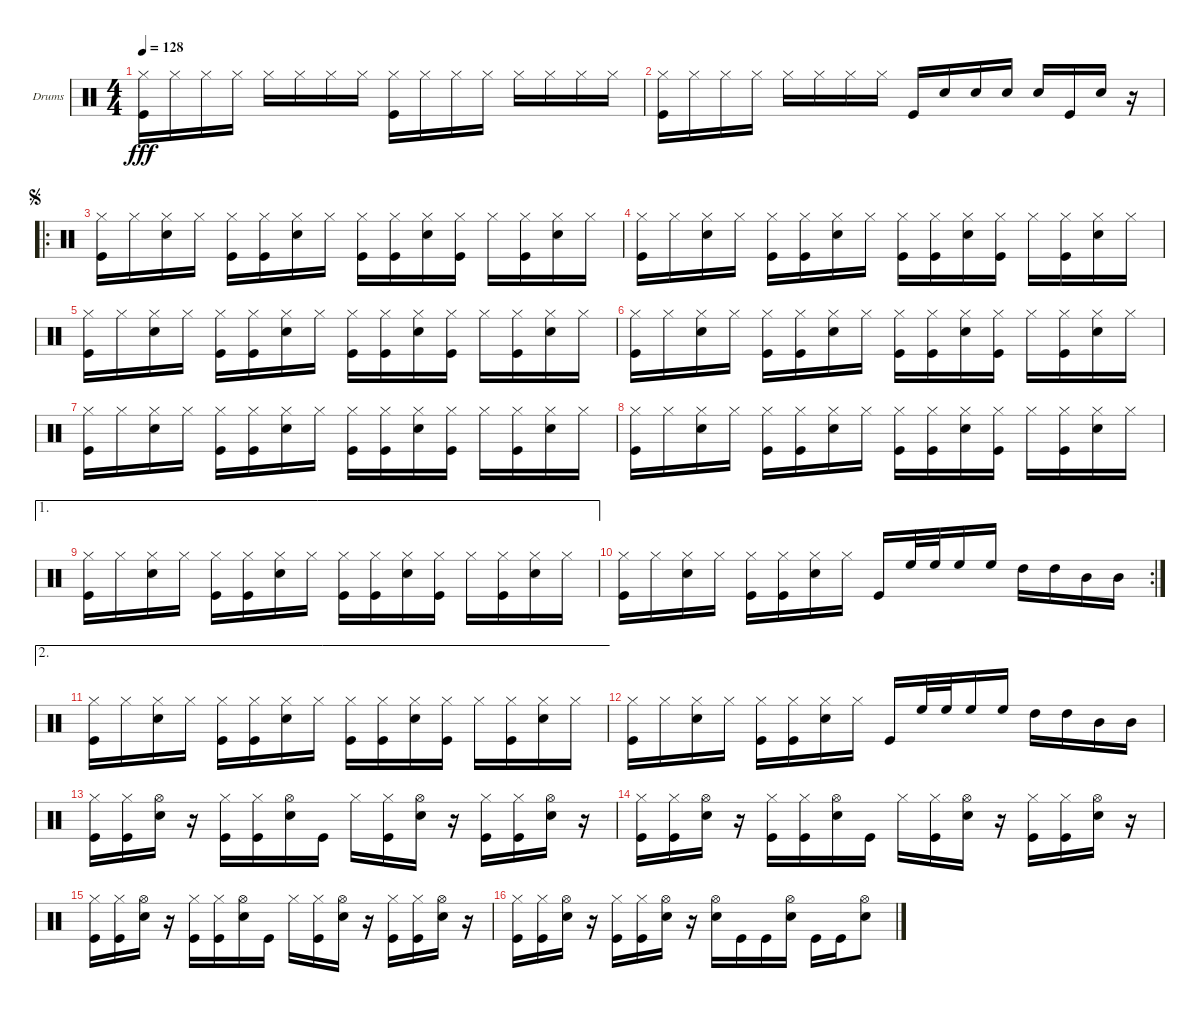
\bracketExtendMode groupsimilarinstruments
\firstSystemTrackNameOrientation horizontal
\otherSystemsTrackNameOrientation horizontal
\chordDiagramsInScore
\track ("Drumkit" "Drums") {instrument percussion}
\staff {score}
\articulation defaults
\ts (4 4)
\tempo 128
\clef neutral
\scale
0.447368
\ks c
("Kick (hit)" "Hi-Hat (closed)").16{dy fff} "Hi-Hat (closed)".16 "Hi-Hat (closed)".16 "Hi-Hat (closed)".16 "Hi-Hat (closed)".16 "Hi-Hat (closed)".16 "Hi-Hat (closed)".16 "Hi-Hat (closed)".16 ("Kick (hit)" "Hi-Hat (closed)").16 "Hi-Hat (closed)".16 "Hi-Hat (closed)".16 "Hi-Hat (closed)".16 "Hi-Hat (closed)".16 "Hi-Hat (closed)".16 "Hi-Hat (closed)".16 "Hi-Hat (closed)".16 |
\scale
0.25 ("Kick (hit)" "Hi-Hat (closed)").16 "Hi-Hat (closed)".16 "Hi-Hat (closed)".16 "Hi-Hat (closed)".16 "Hi-Hat (closed)".16 "Hi-Hat (closed)".16 "Hi-Hat (closed)".16 "Hi-Hat (closed)".16 "Kick (hit)".16 "Snare (hit) 2".16 "Snare (hit) 2".16 "Snare (hit) 2".16 "Snare (hit) 2".16 "Kick (hit)".16 "Snare (hit) 2".16 r.16 |
\ro
\jump segno
\scale
0.302632 ("Hi-Hat (closed)" "Kick (hit)").16 "Hi-Hat (closed)".16 ("Hi-Hat (closed)" "Snare (hit) 2").16 "Hi-Hat (closed)".16 ("Kick (hit)" "Hi-Hat (closed)").16 ("Kick (hit)" "Hi-Hat (closed)").16 ("Snare (hit) 2" "Hi-Hat (closed)").16 "Hi-Hat (closed)".16 ("Kick (hit)" "Hi-Hat (closed)").16 ("Kick (hit)" "Hi-Hat (closed)").16 ("Snare (hit) 2" "Hi-Hat (closed)").16 ("Hi-Hat (closed)" "Kick (hit)").16 "Hi-Hat (closed)".16 ("Kick (hit)" "Hi-Hat (closed)").16 ("Snare (hit) 2" "Hi-Hat (closed)").16 "Hi-Hat (closed)".16 |
\scale
0.333333 ("Hi-Hat (closed)" "Kick (hit)").16 "Hi-Hat (closed)".16 ("Hi-Hat (closed)" "Snare (hit) 2").16 "Hi-Hat (closed)".16 ("Kick (hit)" "Hi-Hat (closed)").16 ("Kick (hit)" "Hi-Hat (closed)").16 ("Snare (hit) 2" "Hi-Hat (closed)").16 "Hi-Hat (closed)".16 ("Kick (hit)" "Hi-Hat (closed)").16 ("Kick (hit)" "Hi-Hat (closed)").16 ("Snare (hit) 2" "Hi-Hat (closed)").16 ("Hi-Hat (closed)" "Kick (hit)").16 "Hi-Hat (closed)".16 ("Kick (hit)" "Hi-Hat (closed)").16 ("Snare (hit) 2" "Hi-Hat (closed)").16 "Hi-Hat (closed)".16 |
\scale
0.333333 ("Hi-Hat (closed)" "Kick (hit)").16 "Hi-Hat (closed)".16 ("Hi-Hat (closed)" "Snare (hit) 2").16 "Hi-Hat (closed)".16 ("Kick (hit)" "Hi-Hat (closed)").16 ("Kick (hit)" "Hi-Hat (closed)").16 ("Snare (hit) 2" "Hi-Hat (closed)").16 "Hi-Hat (closed)".16 ("Kick (hit)" "Hi-Hat (closed)").16 ("Kick (hit)" "Hi-Hat (closed)").16 ("Snare (hit) 2" "Hi-Hat (closed)").16 ("Hi-Hat (closed)" "Kick (hit)").16 "Hi-Hat (closed)".16 ("Kick (hit)" "Hi-Hat (closed)").16 ("Snare (hit) 2" "Hi-Hat (closed)").16 "Hi-Hat (closed)".16 |
\scale
0.333333 ("Hi-Hat (closed)" "Kick (hit)").16 "Hi-Hat (closed)".16 ("Hi-Hat (closed)" "Snare (hit) 2").16 "Hi-Hat (closed)".16 ("Kick (hit)" "Hi-Hat (closed)").16 ("Kick (hit)" "Hi-Hat (closed)").16 ("Snare (hit) 2" "Hi-Hat (closed)").16 "Hi-Hat (closed)".16 ("Kick (hit)" "Hi-Hat (closed)").16 ("Kick (hit)" "Hi-Hat (closed)").16 ("Snare (hit) 2" "Hi-Hat (closed)").16 ("Hi-Hat (closed)" "Kick (hit)").16 "Hi-Hat (closed)".16 ("Kick (hit)" "Hi-Hat (closed)").16 ("Snare (hit) 2" "Hi-Hat (closed)").16 "Hi-Hat (closed)".16 |
\scale
0.333333 ("Hi-Hat (closed)" "Kick (hit)").16 "Hi-Hat (closed)".16 ("Hi-Hat (closed)" "Snare (hit) 2").16 "Hi-Hat (closed)".16 ("Kick (hit)" "Hi-Hat (closed)").16 ("Kick (hit)" "Hi-Hat (closed)").16 ("Snare (hit) 2" "Hi-Hat (closed)").16 "Hi-Hat (closed)".16 ("Kick (hit)" "Hi-Hat (closed)").16 ("Kick (hit)" "Hi-Hat (closed)").16 ("Snare (hit) 2" "Hi-Hat (closed)").16 ("Hi-Hat (closed)" "Kick (hit)").16 "Hi-Hat (closed)".16 ("Kick (hit)" "Hi-Hat (closed)").16 ("Snare (hit) 2" "Hi-Hat (closed)").16 "Hi-Hat (closed)".16 |
\scale
0.333333 ("Hi-Hat (closed)" "Kick (hit)").16 "Hi-Hat (closed)".16 ("Hi-Hat (closed)" "Snare (hit) 2").16 "Hi-Hat (closed)".16 ("Kick (hit)" "Hi-Hat (closed)").16 ("Kick (hit)" "Hi-Hat (closed)").16 ("Snare (hit) 2" "Hi-Hat (closed)").16 "Hi-Hat (closed)".16 ("Kick (hit)" "Hi-Hat (closed)").16 ("Kick (hit)" "Hi-Hat (closed)").16 ("Snare (hit) 2" "Hi-Hat (closed)").16 ("Hi-Hat (closed)" "Kick (hit)").16 "Hi-Hat (closed)".16 ("Kick (hit)" "Hi-Hat (closed)").16 ("Snare (hit) 2" "Hi-Hat (closed)").16 "Hi-Hat (closed)".16 |
\ae 1
\scale
0.333333 ("Hi-Hat (closed)" "Kick (hit)").16 "Hi-Hat (closed)".16 ("Hi-Hat (closed)" "Snare (hit) 2").16 "Hi-Hat (closed)".16 ("Kick (hit)" "Hi-Hat (closed)").16 ("Kick (hit)" "Hi-Hat (closed)").16 ("Snare (hit) 2" "Hi-Hat (closed)").16 "Hi-Hat (closed)".16 ("Kick (hit)" "Hi-Hat (closed)").16 ("Kick (hit)" "Hi-Hat (closed)").16 ("Snare (hit) 2" "Hi-Hat (closed)").16 ("Hi-Hat (closed)" "Kick (hit)").16 "Hi-Hat (closed)".16 ("Kick (hit)" "Hi-Hat (closed)").16 ("Snare (hit) 2" "Hi-Hat (closed)").16 "Hi-Hat (closed)".16 |
\rc 2
("Hi-Hat (closed)" "Kick (hit)").16 "Hi-Hat (closed)".16 ("Hi-Hat (closed)" "Snare (hit) 2").16 "Hi-Hat (closed)".16 ("Kick (hit)" "Hi-Hat (closed)").16 ("Kick (hit)" "Hi-Hat (closed)").16 ("Snare (hit) 2" "Hi-Hat (closed)").16 "Hi-Hat (closed)".16 "Kick (hit)".16 "High Floor Tom (hit)".32 "High Floor Tom (hit)".32 "High Floor Tom (hit)".16 "High Floor Tom (hit)".16 "High Tom (hit)".16 "High Tom (hit)".16 "Mid Tom (hit)".16 "Mid Tom (hit)".16 |
\ae 2
("Hi-Hat (closed)" "Kick (hit)").16 "Hi-Hat (closed)".16 ("Hi-Hat (closed)" "Snare (hit) 2").16 "Hi-Hat (closed)".16 ("Kick (hit)" "Hi-Hat (closed)").16 ("Kick (hit)" "Hi-Hat (closed)").16 ("Snare (hit) 2" "Hi-Hat (closed)").16 "Hi-Hat (closed)".16 ("Kick (hit)" "Hi-Hat (closed)").16 ("Kick (hit)" "Hi-Hat (closed)").16 ("Snare (hit) 2" "Hi-Hat (closed)").16 ("Hi-Hat (closed)" "Kick (hit)").16 "Hi-Hat (closed)".16 ("Kick (hit)" "Hi-Hat (closed)").16 ("Snare (hit) 2" "Hi-Hat (closed)").16 "Hi-Hat (closed)".16 |
("Hi-Hat (closed)" "Kick (hit)").16 "Hi-Hat (closed)".16 ("Hi-Hat (closed)" "Snare (hit) 2").16 "Hi-Hat (closed)".16 ("Kick (hit)" "Hi-Hat (closed)").16 ("Kick (hit)" "Hi-Hat (closed)").16 ("Snare (hit) 2" "Hi-Hat (closed)").16 "Hi-Hat (closed)".16 "Kick (hit)".16 "High Floor Tom (hit)".32 "High Floor Tom (hit)".32 "High Floor Tom (hit)".16 "High Floor Tom (hit)".16 "High Tom (hit)".16 "High Tom (hit)".16 "Mid Tom (hit)".16 "Mid Tom (hit)".16 |
("Hi-Hat (closed)" "Kick (hit)").16 ("Hi-Hat (closed)" "Kick (hit)").16 ("Hi-Hat (open)" "Snare (hit) 2").16 r.16 ("Hi-Hat (closed)" "Kick (hit)").16 ("Hi-Hat (closed)" "Kick (hit)").16 ("Hi-Hat (open)" "Snare (hit) 2").16 "Kick (hit)".16 "Hi-Hat (closed)".16 ("Hi-Hat (closed)" "Kick (hit)").16 ("Hi-Hat (open)" "Snare (hit) 2").16 r.16 ("Hi-Hat (closed)" "Kick (hit)").16 ("Hi-Hat (closed)" "Kick (hit)").16 ("Hi-Hat (open)" "Snare (hit) 2").16 r.16 |
("Hi-Hat (closed)" "Kick (hit)").16 ("Hi-Hat (closed)" "Kick (hit)").16 ("Hi-Hat (open)" "Snare (hit) 2").16 r.16 ("Hi-Hat (closed)" "Kick (hit)").16 ("Hi-Hat (closed)" "Kick (hit)").16 ("Hi-Hat (open)" "Snare (hit) 2").16 "Kick (hit)".16 "Hi-Hat (closed)".16 ("Hi-Hat (closed)" "Kick (hit)").16 ("Hi-Hat (open)" "Snare (hit) 2").16 r.16 ("Hi-Hat (closed)" "Kick (hit)").16 ("Hi-Hat (closed)" "Kick (hit)").16 ("Hi-Hat (open)" "Snare (hit) 2").16 r.16 |
("Hi-Hat (closed)" "Kick (hit)").16 ("Hi-Hat (closed)" "Kick (hit)").16 ("Hi-Hat (open)" "Snare (hit) 2").16 r.16 ("Hi-Hat (closed)" "Kick (hit)").16 ("Hi-Hat (closed)" "Kick (hit)").16 ("Hi-Hat (open)" "Snare (hit) 2").16 "Kick (hit)".16 "Hi-Hat (closed)".16 ("Hi-Hat (closed)" "Kick (hit)").16 ("Hi-Hat (open)" "Snare (hit) 2").16 r.16 ("Hi-Hat (closed)" "Kick (hit)").16 ("Hi-Hat (closed)" "Kick (hit)").16 ("Hi-Hat (open)" "Snare (hit) 2").16 r.16 |
("Hi-Hat (closed)" "Kick (hit)").16 ("Hi-Hat (closed)" "Kick (hit)").16 ("Hi-Hat (open)" "Snare (hit) 2").16 r.16 ("Hi-Hat (closed)" "Kick (hit)").16 ("Hi-Hat (closed)" "Kick (hit)").16 ("Hi-Hat (open)" "Snare (hit) 2").16 r.16 ("Snare (hit) 2" "Hi-Hat (open)").16 "Kick (hit)".16 "Kick (hit)".16 ("Snare (hit) 2" "Hi-Hat (open)").16 "Kick (hit)".16 "Kick (hit)".16 ("Snare (hit) 2" "Hi-Hat (open)").8
